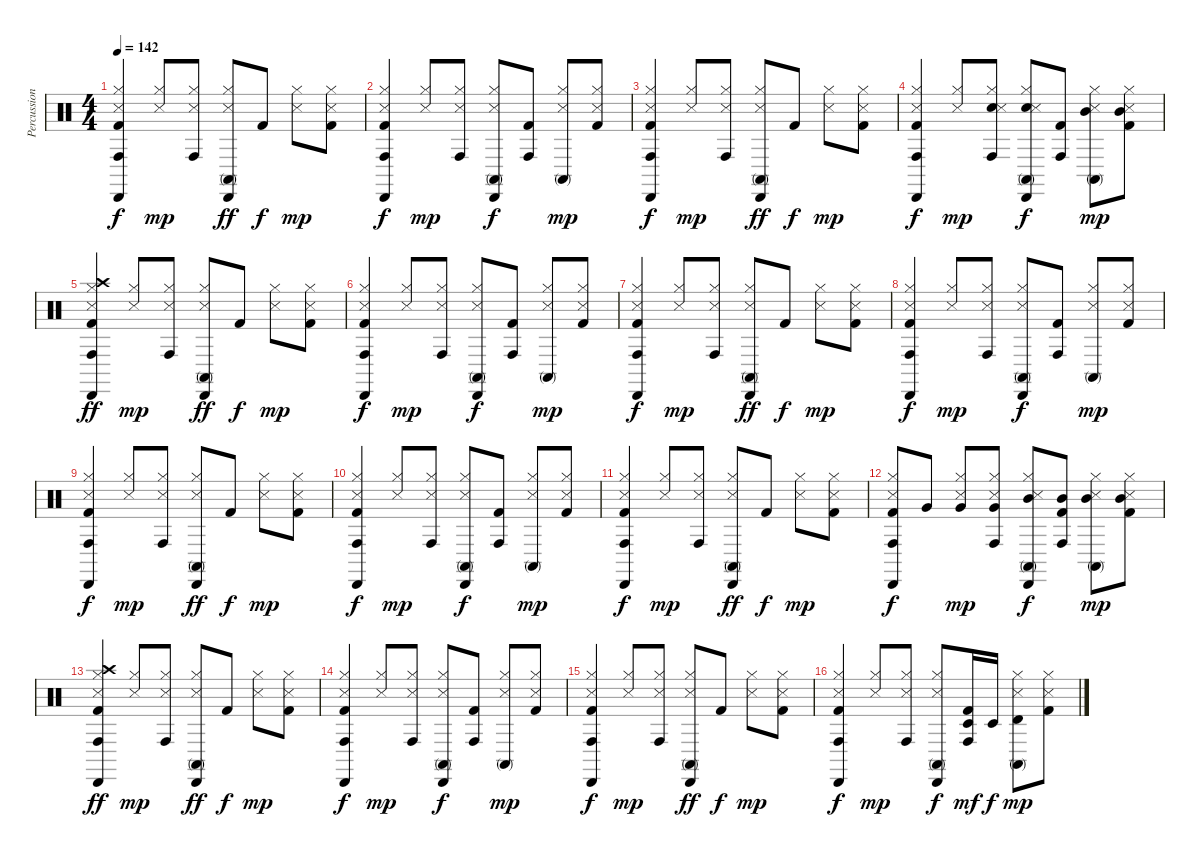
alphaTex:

\track ("Percussion" "Percussion") {instrument percussion}
\staff {score}
\articulation defaults
\ts (4 4)
\tempo 142
\clef neutral
\ks c
("Conga high (hit)" "Cabasa (hit)" "Hi-Hat (closed)" "Snare (side stick) 3" "Kick (hit) 2").4{dy f} ("Hi-Hat (closed)" "Snare (side stick) 3").8{dy mp} ("Conga high (hit)" "Hi-Hat (closed)" "Snare (side stick) 3").8 ("Conga high (mute)" "Cabasa (hit)" "Hi-Hat (closed)" "Snare (side stick) 3").8{dy ff} "Kick (hit) 2".8{dy f} ("Hi-Hat (closed)" "Snare (side stick) 3").8{dy mp} ("Hi-Hat (closed)" "Snare (side stick) 3" "Kick (hit) 2").8 |
("Conga high (hit)" "Cabasa (hit)" "Hi-Hat (closed)" "Snare (side stick) 3" "Kick (hit) 2").4{dy f} ("Hi-Hat (closed)" "Snare (side stick) 3").8{dy mp} ("Conga high (hit)" "Hi-Hat (closed)" "Snare (side stick) 3").8 ("Conga high (mute)" "Cabasa (hit)" "Hi-Hat (closed)" "Snare (side stick) 3").8{dy f} ("Conga high (hit)" "Kick (hit) 2").8 ("Conga high (mute)" "Hi-Hat (closed)" "Snare (side stick) 3").8{dy mp} ("Hi-Hat (closed)" "Snare (side stick) 3" "Kick (hit) 2").8 |
("Conga high (hit)" "Cabasa (hit)" "Hi-Hat (closed)" "Snare (side stick) 3" "Kick (hit) 2").4{dy f} ("Hi-Hat (closed)" "Snare (side stick) 3").8{dy mp} ("Conga high (hit)" "Hi-Hat (closed)" "Snare (side stick) 3").8 ("Conga high (mute)" "Cabasa (hit)" "Hi-Hat (closed)" "Snare (side stick) 3").8{dy ff} "Kick (hit) 2".8{dy f} ("Hi-Hat (closed)" "Snare (side stick) 3").8{dy mp} ("Hi-Hat (closed)" "Snare (side stick) 3" "Kick (hit) 2").8 |
("Conga high (hit)" "Cabasa (hit)" "Hi-Hat (closed)" "Snare (side stick) 3" "Kick (hit) 2").4{dy f} ("Hi-Hat (closed)" "Snare (side stick) 3").8{dy mp} ("Conga high (hit)" "Hi-Hat (closed)" "Snare (hit) 2" "Snare (side stick) 3").8 ("Conga high (mute)" "Cabasa (hit)" "Hi-Hat (closed)" "Snare (hit) 2" "Snare (side stick) 3").8{dy f} ("Conga high (hit)" "Kick (hit) 2").8 ("Conga high (mute)" "Mid Tom (hit)" "Hi-Hat (closed)" "Snare (side stick) 3").8{dy mp} ("Mid Tom (hit)" "Hi-Hat (closed)" "Snare (side stick) 3" "Kick (hit) 2").8 |
("Conga high (hit)" "Cabasa (hit)" "Crash high (hit)" "Hi-Hat (closed)" "Snare (side stick) 3" "Kick (hit) 2").4{dy ff} ("Hi-Hat (closed)" "Snare (side stick) 3").8{dy mp} ("Conga high (hit)" "Hi-Hat (closed)" "Snare (side stick) 3").8 ("Conga high (mute)" "Cabasa (hit)" "Hi-Hat (closed)" "Snare (side stick) 3").8{dy ff} "Kick (hit) 2".8{dy f} ("Hi-Hat (closed)" "Snare (side stick) 3").8{dy mp} ("Hi-Hat (closed)" "Snare (side stick) 3" "Kick (hit) 2").8 |
("Conga high (hit)" "Cabasa (hit)" "Hi-Hat (closed)" "Snare (side stick) 3" "Kick (hit) 2").4{dy f} ("Hi-Hat (closed)" "Snare (side stick) 3").8{dy mp} ("Conga high (hit)" "Hi-Hat (closed)" "Snare (side stick) 3").8 ("Conga high (mute)" "Cabasa (hit)" "Hi-Hat (closed)" "Snare (side stick) 3").8{dy f} ("Conga high (hit)" "Kick (hit) 2").8 ("Conga high (mute)" "Hi-Hat (closed)" "Snare (side stick) 3").8{dy mp} ("Hi-Hat (closed)" "Snare (side stick) 3" "Kick (hit) 2").8 |
("Conga high (hit)" "Cabasa (hit)" "Hi-Hat (closed)" "Snare (side stick) 3" "Kick (hit) 2").4{dy f} ("Hi-Hat (closed)" "Snare (side stick) 3").8{dy mp} ("Conga high (hit)" "Hi-Hat (closed)" "Snare (side stick) 3").8 ("Conga high (mute)" "Cabasa (hit)" "Hi-Hat (closed)" "Snare (side stick) 3").8{dy ff} "Kick (hit) 2".8{dy f} ("Hi-Hat (closed)" "Snare (side stick) 3").8{dy mp} ("Hi-Hat (closed)" "Snare (side stick) 3" "Kick (hit) 2").8 |
("Conga high (hit)" "Cabasa (hit)" "Hi-Hat (closed)" "Snare (side stick) 3" "Kick (hit) 2").4{dy f} ("Hi-Hat (closed)" "Snare (side stick) 3").8{dy mp} ("Conga high (hit)" "Hi-Hat (closed)" "Snare (side stick) 3").8 ("Conga high (mute)" "Cabasa (hit)" "Hi-Hat (closed)" "Snare (side stick) 3").8{dy f} ("Conga high (hit)" "Kick (hit) 2").8 ("Conga high (mute)" "Hi-Hat (closed)" "Snare (side stick) 3").8{dy mp} ("Hi-Hat (closed)" "Snare (side stick) 3" "Kick (hit) 2").8 |
("Conga high (hit)" "Cabasa (hit)" "Hi-Hat (closed)" "Snare (side stick) 3" "Kick (hit) 2").4{dy f} ("Hi-Hat (closed)" "Snare (side stick) 3").8{dy mp} ("Conga high (hit)" "Hi-Hat (closed)" "Snare (side stick) 3").8 ("Conga high (mute)" "Cabasa (hit)" "Hi-Hat (closed)" "Snare (side stick) 3").8{dy ff} "Kick (hit) 2".8{dy f} ("Hi-Hat (closed)" "Snare (side stick) 3").8{dy mp} ("Hi-Hat (closed)" "Snare (side stick) 3" "Kick (hit) 2").8 |
("Conga high (hit)" "Cabasa (hit)" "Hi-Hat (closed)" "Snare (side stick) 3" "Kick (hit) 2").4{dy f} ("Hi-Hat (closed)" "Snare (side stick) 3").8{dy mp} ("Conga high (hit)" "Hi-Hat (closed)" "Snare (side stick) 3").8 ("Conga high (mute)" "Cabasa (hit)" "Hi-Hat (closed)" "Snare (side stick) 3").8{dy f} ("Conga high (hit)" "Kick (hit) 2").8 ("Conga high (mute)" "Hi-Hat (closed)" "Snare (side stick) 3").8{dy mp} ("Hi-Hat (closed)" "Snare (side stick) 3" "Kick (hit) 2").8 |
("Conga high (hit)" "Cabasa (hit)" "Hi-Hat (closed)" "Snare (side stick) 3" "Kick (hit) 2").4{dy f} ("Hi-Hat (closed)" "Snare (side stick) 3").8{dy mp} ("Conga high (hit)" "Hi-Hat (closed)" "Snare (side stick) 3").8 ("Conga high (mute)" "Cabasa (hit)" "Hi-Hat (closed)" "Snare (side stick) 3").8{dy ff} "Kick (hit) 2".8{dy f} ("Hi-Hat (closed)" "Snare (side stick) 3").8{dy mp} ("Hi-Hat (closed)" "Snare (side stick) 3" "Kick (hit) 2").8 |
("Conga high (hit)" "Cabasa (hit)" "Hi-Hat (closed)" "Snare (side stick) 3" "Kick (hit) 2").8{dy f} "Very Low Tom (hit)".8 ("Very Low Tom (hit)" "Hi-Hat (closed)" "Snare (side stick) 3").8{dy mp} ("Conga high (hit)" "Very Low Tom (hit)" "Hi-Hat (closed)" "Snare (side stick) 3").8 ("Conga high (mute)" "Cabasa (hit)" "Mid Tom (hit)" "Hi-Hat (closed)" "Snare (side stick) 3").8{dy f} ("Conga high (hit)" "Mid Tom (hit)" "Kick (hit) 2").8 ("Conga high (mute)" "Mid Tom (hit)" "Hi-Hat (closed)" "Snare (side stick) 3").8{dy mp} ("Mid Tom (hit)" "Hi-Hat (closed)" "Snare (side stick) 3" "Kick (hit) 2").8 |
("Conga high (hit)" "Cabasa (hit)" "Crash high (hit)" "Hi-Hat (closed)" "Snare (side stick) 3" "Kick (hit) 2").4{dy ff} ("Hi-Hat (closed)" "Snare (side stick) 3").8{dy mp} ("Conga high (hit)" "Hi-Hat (closed)" "Snare (side stick) 3").8 ("Conga high (mute)" "Cabasa (hit)" "Hi-Hat (closed)" "Snare (side stick) 3").8{dy ff} "Kick (hit) 2".8{dy f} ("Hi-Hat (closed)" "Snare (side stick) 3").8{dy mp} ("Hi-Hat (closed)" "Snare (side stick) 3" "Kick (hit) 2").8 |
("Conga high (hit)" "Cabasa (hit)" "Hi-Hat (closed)" "Snare (side stick) 3" "Kick (hit) 2").4{dy f} ("Hi-Hat (closed)" "Snare (side stick) 3").8{dy mp} ("Conga high (hit)" "Hi-Hat (closed)" "Snare (side stick) 3").8 ("Conga high (mute)" "Cabasa (hit)" "Hi-Hat (closed)" "Snare (side stick) 3").8{dy f} ("Conga high (hit)" "Kick (hit) 2").8 ("Conga high (mute)" "Hi-Hat (closed)" "Snare (side stick) 3").8{dy mp} ("Hi-Hat (closed)" "Snare (side stick) 3" "Kick (hit) 2").8 |
("Conga high (hit)" "Cabasa (hit)" "Hi-Hat (closed)" "Snare (side stick) 3" "Kick (hit) 2").4{dy f} ("Hi-Hat (closed)" "Snare (side stick) 3").8{dy mp} ("Conga high (hit)" "Hi-Hat (closed)" "Snare (side stick) 3").8 ("Conga high (mute)" "Cabasa (hit)" "Hi-Hat (closed)" "Snare (side stick) 3").8{dy ff} "Kick (hit) 2".8{dy f} ("Hi-Hat (closed)" "Snare (side stick) 3").8{dy mp} ("Hi-Hat (closed)" "Snare (side stick) 3" "Kick (hit) 2").8 |
("Conga high (hit)" "Cabasa (hit)" "Hi-Hat (closed)" "Snare (side stick) 3" "Kick (hit) 2").4{dy f} ("Hi-Hat (closed)" "Snare (side stick) 3").8{dy mp} ("Conga high (hit)" "Hi-Hat (closed)" "Snare (side stick) 3").8 ("Conga high (mute)" "Cabasa (hit)" "Hi-Hat (closed)" "Snare (side stick) 3").8{dy f} ("Timbale low (hit)" "Conga high (hit)" "Kick (hit) 2").16{dy mf} "Timbale low (hit)".16{dy f} ("Timbale high (hit)" "Conga high (mute)" "Hi-Hat (closed)" "Snare (side stick) 3").8{dy mp} ("Hi-Hat (closed)" "Snare (side stick) 3" "Kick (hit) 2").8
